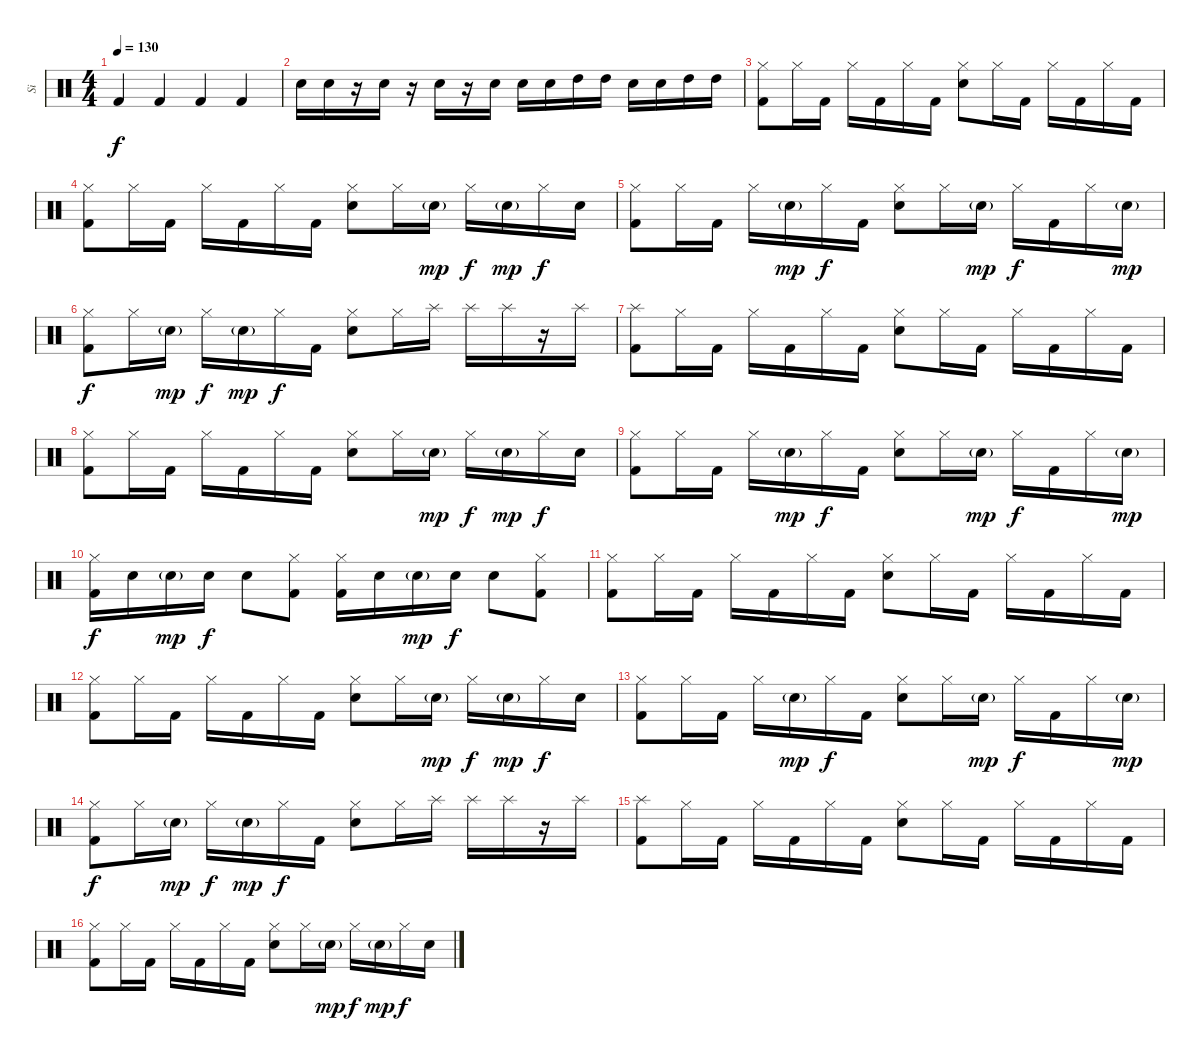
\track ("Si" "Si") {instrument percussion}
\staff {score}
\articulation defaults
\ts (4 4)
\tempo 130
\clef neutral
\ks c "Kick (hit) 2".4{dy f} "Kick (hit) 2".4 "Kick (hit) 2".4 "Kick (hit) 2".4
|
"Electric Snare (hit)".16 "Electric Snare (hit)".16 r.16 "Electric Snare (hit)".16 r.16 "Electric Snare (hit)".16 r.16 "Electric Snare (hit)".16 "Electric Snare (hit)".16 "Electric Snare (hit)".16 "High Tom (hit)".16 "High Tom (hit)".16 "Electric Snare (hit)".16 "Electric Snare (hit)".16 "High Tom (hit)".16 "High Tom (hit)".16 |
("Hi-Hat (closed)" "Kick (hit) 2").8 "Hi-Hat (closed)".16 "Kick (hit) 2".16 "Hi-Hat (closed)".16 "Kick (hit) 2".16 "Hi-Hat (closed)".16 "Kick (hit) 2".16 ("Hi-Hat (closed)" "Electric Snare (hit)").8 "Hi-Hat (closed)".16 "Kick (hit) 2".16 "Hi-Hat (closed)".16 "Kick (hit) 2".16 "Hi-Hat (closed)".16 "Kick (hit) 2".16 |
("Hi-Hat (closed)" "Kick (hit) 2").8 "Hi-Hat (closed)".16 "Kick (hit) 2".16 "Hi-Hat (closed)".16 "Kick (hit) 2".16 "Hi-Hat (closed)".16 "Kick (hit) 2".16 ("Hi-Hat (closed)" "Electric Snare (hit)").8 "Hi-Hat (closed)".16 "Electric Snare (hit)"{g}.16{dy mp} "Hi-Hat (closed)".16{dy f} "Electric Snare (hit)"{g}.16{dy mp} "Hi-Hat (closed)".16{dy f} "Electric Snare (hit)".16 |
("Hi-Hat (closed)" "Kick (hit) 2").8 "Hi-Hat (closed)".16 "Kick (hit) 2".16 "Hi-Hat (closed)".16 "Electric Snare (hit)"{g}.16{dy mp} "Hi-Hat (closed)".16{dy f} "Kick (hit) 2".16 ("Hi-Hat (closed)" "Electric Snare (hit)").8 "Hi-Hat (closed)".16 "Electric Snare (hit)"{g}.16{dy mp} "Hi-Hat (closed)".16{dy f} "Kick (hit) 2".16 "Hi-Hat (closed)".16 "Electric Snare (hit)"{g}.16{dy mp} |
("Hi-Hat (closed)" "Kick (hit) 2").8{dy f} "Hi-Hat (closed)".16 "Electric Snare (hit)"{g}.16{dy mp} "Hi-Hat (closed)".16{dy f} "Electric Snare (hit)"{g}.16{dy mp} "Hi-Hat (closed)".16{dy f} "Kick (hit) 2".16 ("Hi-Hat (closed)" "Electric Snare (hit)").8 "Hi-Hat (closed)".16 "Splash (hit)".16 "Splash (hit)".16 "Splash (hit)".16 r.16 "Splash (hit)".16 |
("Splash (hit)" "Kick (hit) 2").8 "Hi-Hat (closed)".16 "Kick (hit) 2".16 "Hi-Hat (closed)".16 "Kick (hit) 2".16 "Hi-Hat (closed)".16 "Kick (hit) 2".16 ("Hi-Hat (closed)" "Electric Snare (hit)").8 "Hi-Hat (closed)".16 "Kick (hit) 2".16 "Hi-Hat (closed)".16 "Kick (hit) 2".16 "Hi-Hat (closed)".16 "Kick (hit) 2".16 |
("Hi-Hat (closed)" "Kick (hit) 2").8 "Hi-Hat (closed)".16 "Kick (hit) 2".16 "Hi-Hat (closed)".16 "Kick (hit) 2".16 "Hi-Hat (closed)".16 "Kick (hit) 2".16 ("Hi-Hat (closed)" "Electric Snare (hit)").8 "Hi-Hat (closed)".16 "Electric Snare (hit)"{g}.16{dy mp} "Hi-Hat (closed)".16{dy f} "Electric Snare (hit)"{g}.16{dy mp} "Hi-Hat (closed)".16{dy f} "Electric Snare (hit)".16 |
("Hi-Hat (closed)" "Kick (hit) 2").8 "Hi-Hat (closed)".16 "Kick (hit) 2".16 "Hi-Hat (closed)".16 "Electric Snare (hit)"{g}.16{dy mp} "Hi-Hat (closed)".16{dy f} "Kick (hit) 2".16 ("Hi-Hat (closed)" "Electric Snare (hit)").8 "Hi-Hat (closed)".16 "Electric Snare (hit)"{g}.16{dy mp} "Hi-Hat (closed)".16{dy f} "Kick (hit) 2".16 "Hi-Hat (closed)".16 "Electric Snare (hit)"{g}.16{dy mp} |
("Hi-Hat (closed)" "Kick (hit) 2").16{dy f} "Electric Snare (hit)".16 "Electric Snare (hit)"{g}.16{dy mp} "Electric Snare (hit)".16{dy f} "Electric Snare (hit)".8 ("Hi-Hat (closed)" "Kick (hit) 2").8 ("Hi-Hat (closed)" "Kick (hit) 2").16 "Electric Snare (hit)".16 "Electric Snare (hit)"{g}.16{dy mp} "Electric Snare (hit)".16{dy f} "Electric Snare (hit)".8 ("Hi-Hat (closed)" "Kick (hit) 2").8 |
("Hi-Hat (closed)" "Kick (hit) 2").8 "Hi-Hat (closed)".16 "Kick (hit) 2".16 "Hi-Hat (closed)".16 "Kick (hit) 2".16 "Hi-Hat (closed)".16 "Kick (hit) 2".16 ("Hi-Hat (closed)" "Electric Snare (hit)").8 "Hi-Hat (closed)".16 "Kick (hit) 2".16 "Hi-Hat (closed)".16 "Kick (hit) 2".16 "Hi-Hat (closed)".16 "Kick (hit) 2".16 |
("Hi-Hat (closed)" "Kick (hit) 2").8 "Hi-Hat (closed)".16 "Kick (hit) 2".16 "Hi-Hat (closed)".16 "Kick (hit) 2".16 "Hi-Hat (closed)".16 "Kick (hit) 2".16 ("Hi-Hat (closed)" "Electric Snare (hit)").8 "Hi-Hat (closed)".16 "Electric Snare (hit)"{g}.16{dy mp} "Hi-Hat (closed)".16{dy f} "Electric Snare (hit)"{g}.16{dy mp} "Hi-Hat (closed)".16{dy f} "Electric Snare (hit)".16 |
("Hi-Hat (closed)" "Kick (hit) 2").8 "Hi-Hat (closed)".16 "Kick (hit) 2".16 "Hi-Hat (closed)".16 "Electric Snare (hit)"{g}.16{dy mp} "Hi-Hat (closed)".16{dy f} "Kick (hit) 2".16 ("Hi-Hat (closed)" "Electric Snare (hit)").8 "Hi-Hat (closed)".16 "Electric Snare (hit)"{g}.16{dy mp} "Hi-Hat (closed)".16{dy f} "Kick (hit) 2".16 "Hi-Hat (closed)".16 "Electric Snare (hit)"{g}.16{dy mp} |
("Hi-Hat (closed)" "Kick (hit) 2").8{dy f} "Hi-Hat (closed)".16 "Electric Snare (hit)"{g}.16{dy mp} "Hi-Hat (closed)".16{dy f} "Electric Snare (hit)"{g}.16{dy mp} "Hi-Hat (closed)".16{dy f} "Kick (hit) 2".16 ("Hi-Hat (closed)" "Electric Snare (hit)").8 "Hi-Hat (closed)".16 "Splash (hit)".16 "Splash (hit)".16 "Splash (hit)".16 r.16 "Splash (hit)".16 |
("Splash (hit)" "Kick (hit) 2").8 "Hi-Hat (closed)".16 "Kick (hit) 2".16 "Hi-Hat (closed)".16 "Kick (hit) 2".16 "Hi-Hat (closed)".16 "Kick (hit) 2".16 ("Hi-Hat (closed)" "Electric Snare (hit)").8 "Hi-Hat (closed)".16 "Kick (hit) 2".16 "Hi-Hat (closed)".16 "Kick (hit) 2".16 "Hi-Hat (closed)".16 "Kick (hit) 2".16 |
("Hi-Hat (closed)" "Kick (hit) 2").8 "Hi-Hat (closed)".16 "Kick (hit) 2".16 "Hi-Hat (closed)".16 "Kick (hit) 2".16 "Hi-Hat (closed)".16 "Kick (hit) 2".16 ("Hi-Hat (closed)" "Electric Snare (hit)").8 "Hi-Hat (closed)".16 "Electric Snare (hit)"{g}.16{dy mp} "Hi-Hat (closed)".16{dy f} "Electric Snare (hit)"{g}.16{dy mp} "Hi-Hat (closed)".16{dy f} "Electric Snare (hit)".16
